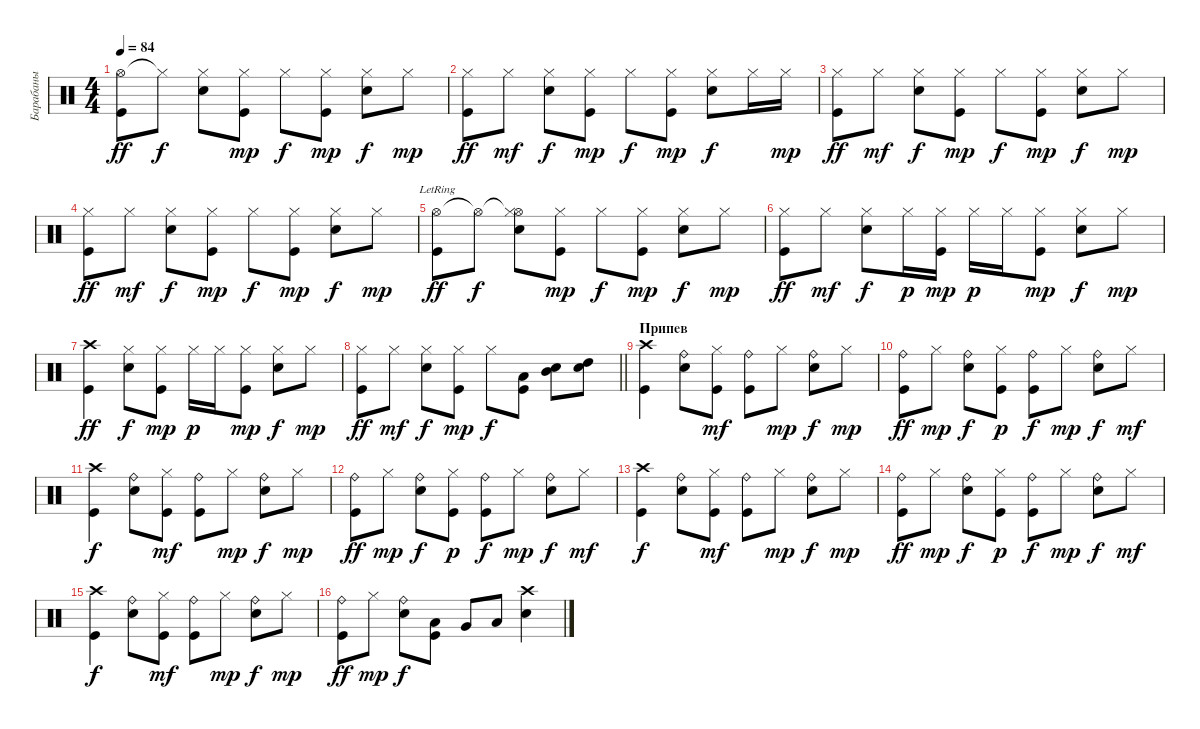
\track ("Барабаны" "Барабаны") {instrument percussion}
\staff {score}
\articulation defaults
\ts (4 4)
\tempo 84
\clef neutral
\ks c
("Hi-Hat (open)" "Kick (hit)").8{dy ff} "Hi-Hat (closed)"{t}.8{dy f} ("Hi-Hat (closed)" "Electric Snare (hit)").8 ("Hi-Hat (closed)" "Kick (hit)").8{dy mp} "Hi-Hat (closed)".8{dy f} ("Hi-Hat (closed)" "Kick (hit)").8{dy mp} ("Hi-Hat (closed)" "Electric Snare (hit)").8{dy f} "Hi-Hat (closed)".8{dy mp} |
("Hi-Hat (closed)" "Kick (hit)").8{dy ff} "Hi-Hat (closed)".8{dy mf} ("Hi-Hat (closed)" "Electric Snare (hit)").8{dy f} ("Hi-Hat (closed)" "Kick (hit)").8{dy mp} "Hi-Hat (closed)".8{dy f} ("Hi-Hat (closed)" "Kick (hit)").8{dy mp} ("Hi-Hat (closed)" "Electric Snare (hit)").8{dy f} "Hi-Hat (closed)".16 "Hi-Hat (closed)".16{dy mp} |
("Hi-Hat (closed)" "Kick (hit)").8{dy ff} "Hi-Hat (closed)".8{dy mf} ("Hi-Hat (closed)" "Electric Snare (hit)").8{dy f} ("Hi-Hat (closed)" "Kick (hit)").8{dy mp} "Hi-Hat (closed)".8{dy f} ("Hi-Hat (closed)" "Kick (hit)").8{dy mp} ("Hi-Hat (closed)" "Electric Snare (hit)").8{dy f} "Hi-Hat (closed)".8{dy mp} |
("Hi-Hat (closed)" "Kick (hit)").8{dy ff} "Hi-Hat (closed)".8{dy mf} ("Hi-Hat (closed)" "Electric Snare (hit)").8{dy f} ("Hi-Hat (closed)" "Kick (hit)").8{dy mp} "Hi-Hat (closed)".8{dy f} ("Hi-Hat (closed)" "Kick (hit)").8{dy mp} ("Hi-Hat (closed)" "Electric Snare (hit)").8{dy f} "Hi-Hat (closed)".8{dy mp} |
("Hi-Hat (open)"{lr} "Kick (hit)").8{dy ff} "Hi-Hat (open)"{t}.8{dy f} ("Hi-Hat (open)"{t} "Hi-Hat (closed)" "Electric Snare (hit)").8 ("Hi-Hat (closed)" "Kick (hit)").8{dy mp} "Hi-Hat (closed)".8{dy f} ("Hi-Hat (closed)" "Kick (hit)").8{dy mp} ("Hi-Hat (closed)" "Electric Snare (hit)").8{dy f} "Hi-Hat (closed)".8{dy mp} |
("Hi-Hat (closed)" "Kick (hit)").8{dy ff} "Hi-Hat (closed)".8{dy mf} ("Hi-Hat (closed)" "Electric Snare (hit)").8{dy f} "Hi-Hat (closed)".16{dy p} ("Hi-Hat (closed)" "Kick (hit)").16{dy mp} "Hi-Hat (closed)".16{dy p} "Hi-Hat (closed)".16 ("Hi-Hat (closed)" "Kick (hit)").8{dy mp} ("Hi-Hat (closed)" "Electric Snare (hit)").8{dy f} "Hi-Hat (closed)".8{dy mp} |
("Crash high (hit)" "Kick (hit)").4{dy ff} ("Hi-Hat (closed)" "Electric Snare (hit)").8{dy f} ("Hi-Hat (closed)" "Kick (hit)").8{dy mp} "Hi-Hat (closed)".16{dy p} "Hi-Hat (closed)".16 ("Hi-Hat (closed)" "Kick (hit)").8{dy mp} ("Hi-Hat (closed)" "Electric Snare (hit)").8{dy f} "Hi-Hat (closed)".8{dy mp} |
\barLineRight lightlight
("Hi-Hat (closed)" "Kick (hit)").8{dy ff} "Hi-Hat (closed)".8{dy mf} ("Hi-Hat (closed)" "Electric Snare (hit)").8{dy f} ("Hi-Hat (closed)" "Kick (hit)").8{dy mp} "Hi-Hat (closed)".8{dy f} ("Low Tom (hit)" "Kick (hit)").8 ("Mid Tom (hit)" "Snare (hit) 2").8 ("High Tom (hit)" "Electric Snare (hit)").8 |
\section ("" "Припев")
("Crash high (hit)" "Kick (hit)").4 ("Ride (bell)" "Electric Snare (hit)").8 ("Hi-Hat (closed)" "Kick (hit)").8{dy mf} ("Ride (bell)" "Kick (hit)").8 "Hi-Hat (closed)".8{dy mp} ("Ride (bell)" "Electric Snare (hit)").8{dy f} "Hi-Hat (closed)".8{dy mp} |
("Ride (bell)" "Kick (hit)").8{dy ff} "Hi-Hat (closed)".8{dy mp} ("Ride (bell)" "Electric Snare (hit)").8{dy f} ("Hi-Hat (closed)" "Kick (hit)").8{dy p} ("Ride (bell)" "Kick (hit)").8{dy f} "Hi-Hat (closed)".8{dy mp} ("Ride (bell)" "Electric Snare (hit)").8{dy f} "Hi-Hat (closed)".8{dy mf} |
("Crash high (hit)" "Kick (hit)").4{dy f} ("Ride (bell)" "Electric Snare (hit)").8 ("Hi-Hat (closed)" "Kick (hit)").8{dy mf} ("Ride (bell)" "Kick (hit)").8 "Hi-Hat (closed)".8{dy mp} ("Ride (bell)" "Electric Snare (hit)").8{dy f} "Hi-Hat (closed)".8{dy mp} |
("Ride (bell)" "Kick (hit)").8{dy ff} "Hi-Hat (closed)".8{dy mp} ("Ride (bell)" "Electric Snare (hit)").8{dy f} ("Hi-Hat (closed)" "Kick (hit)").8{dy p} ("Ride (bell)" "Kick (hit)").8{dy f} "Hi-Hat (closed)".8{dy mp} ("Ride (bell)" "Electric Snare (hit)").8{dy f} "Hi-Hat (closed)".8{dy mf} |
("Crash high (hit)" "Kick (hit)").4{dy f} ("Ride (bell)" "Electric Snare (hit)").8 ("Hi-Hat (closed)" "Kick (hit)").8{dy mf} ("Ride (bell)" "Kick (hit)").8 "Hi-Hat (closed)".8{dy mp} ("Ride (bell)" "Electric Snare (hit)").8{dy f} "Hi-Hat (closed)".8{dy mp} |
("Ride (bell)" "Kick (hit)").8{dy ff} "Hi-Hat (closed)".8{dy mp} ("Ride (bell)" "Electric Snare (hit)").8{dy f} ("Hi-Hat (closed)" "Kick (hit)").8{dy p} ("Ride (bell)" "Kick (hit)").8{dy f} "Hi-Hat (closed)".8{dy mp} ("Ride (bell)" "Electric Snare (hit)").8{dy f} "Hi-Hat (closed)".8{dy mf} |
("Crash high (hit)" "Kick (hit)").4{dy f} ("Ride (bell)" "Electric Snare (hit)").8 ("Hi-Hat (closed)" "Kick (hit)").8{dy mf} ("Ride (bell)" "Kick (hit)").8 "Hi-Hat (closed)".8{dy mp} ("Ride (bell)" "Electric Snare (hit)").8{dy f} "Hi-Hat (closed)".8{dy mp} |
("Ride (bell)" "Kick (hit)").8{dy ff} "Hi-Hat (closed)".8{dy mp} ("Ride (bell)" "Electric Snare (hit)").8{dy f} ("Low Tom (hit)" "Kick (hit)").8 "Very Low Tom (hit)".8 "Low Floor Tom (hit)".8 ("Crash high (hit)" "Electric Snare (hit)").4
